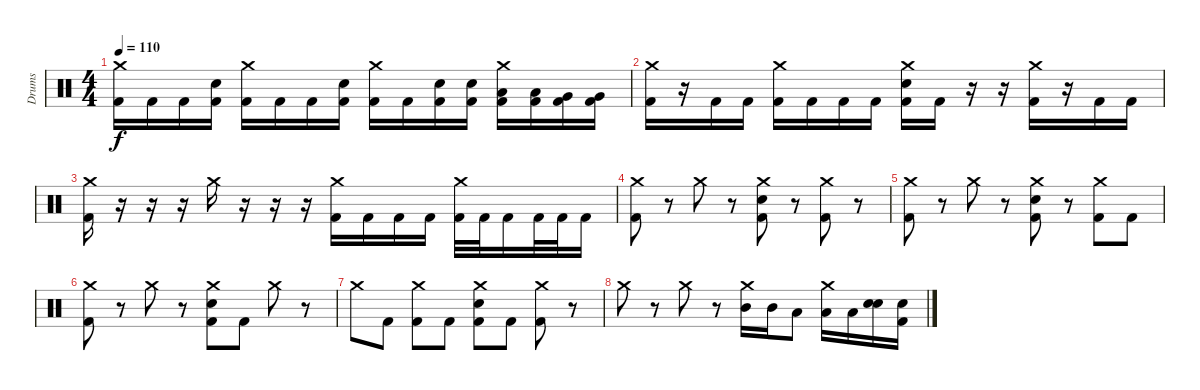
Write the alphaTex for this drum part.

\track ("Drums" "Drums") {instrument percussion}
\staff {score}
\articulation defaults
\ts (4 4)
\tempo 110
\clef neutral
\ks c
("Crash medium (hit)" "Kick (hit) 2").16{dy f} "Kick (hit) 2".16 "Kick (hit) 2".16 ("Snare (hit) 2" "Kick (hit) 2").16 ("Crash medium (hit)" "Kick (hit) 2").16 "Kick (hit) 2".16 "Kick (hit) 2".16 ("Snare (hit) 2" "Kick (hit) 2").16 ("Crash medium (hit)" "Kick (hit) 2").16 "Kick (hit) 2".16 ("Snare (hit) 2" "Kick (hit) 2").16 ("Snare (hit) 2" "Kick (hit) 2").16 ("Crash medium (hit)" "Low Tom (hit)" "Kick (hit) 2").16 ("Low Tom (hit)" "Kick (hit) 2").16 ("Very Low Tom (hit)" "Kick (hit) 2").16 ("Very Low Tom (hit)" "Kick (hit) 2").16 |
("Crash medium (hit)" "Kick (hit) 2").16 r.16 "Kick (hit) 2".16 "Kick (hit) 2".16 ("Crash medium (hit)" "Kick (hit) 2").16 "Kick (hit) 2".16 "Kick (hit) 2".16 "Kick (hit) 2".16 ("Crash medium (hit)" "Snare (hit) 2" "Kick (hit) 2").16 "Kick (hit) 2".16 r.16 r.16 ("Crash medium (hit)" "Kick (hit) 2").16 r.16 "Kick (hit) 2".16 "Kick (hit) 2".16 |
("Crash medium (hit)" "Kick (hit) 2").16 r.16 r.16 r.16 "Crash medium (hit)".16 r.16 r.16 r.16 ("Crash medium (hit)" "Kick (hit) 2").16 "Kick (hit) 2".16 "Kick (hit) 2".16 "Kick (hit) 2".16 ("Crash medium (hit)" "Kick (hit) 2").32 "Kick (hit) 2".32 "Kick (hit) 2".16 "Kick (hit) 2".32 "Kick (hit) 2".32 "Kick (hit) 2".16 |
("Crash medium (hit)" "Kick (hit) 2").8 r.8 "Crash medium (hit)".8 r.8 ("Crash medium (hit)" "Snare (hit) 2" "Kick (hit) 2").8 r.8 ("Crash medium (hit)" "Kick (hit) 2").8 r.8 |
("Crash medium (hit)" "Kick (hit) 2").8 r.8 "Crash medium (hit)".8 r.8 ("Crash medium (hit)" "Snare (hit) 2" "Kick (hit) 2").8 r.8 ("Crash medium (hit)" "Kick (hit) 2").8 "Kick (hit) 2".8 |
("Crash medium (hit)" "Kick (hit) 2").8 r.8 "Crash medium (hit)".8 r.8 ("Crash medium (hit)" "Snare (hit) 2" "Kick (hit) 2").8 "Kick (hit) 2".8 "Crash medium (hit)".8 r.8 |
"Crash medium (hit)".8 "Kick (hit) 2".8 ("Crash medium (hit)" "Kick (hit) 2").8 "Kick (hit) 2".8 ("Crash medium (hit)" "Snare (hit) 2" "Kick (hit) 2").8 "Kick (hit) 2".8 ("Crash medium (hit)" "Kick (hit) 2").8 r.8 |
"Crash medium (hit)".8 r.8 "Crash medium (hit)".8 r.8 ("Crash medium (hit)" "Mid Tom (hit)").16 "Mid Tom (hit)".16 "Low Tom (hit)".8 ("Crash medium (hit)" "Low Tom (hit)").16 "Low Tom (hit)".16 ("Snare (hit) 2" "Snare (hit) 2").16 ("Snare (hit) 2" "Kick (hit) 2").16
